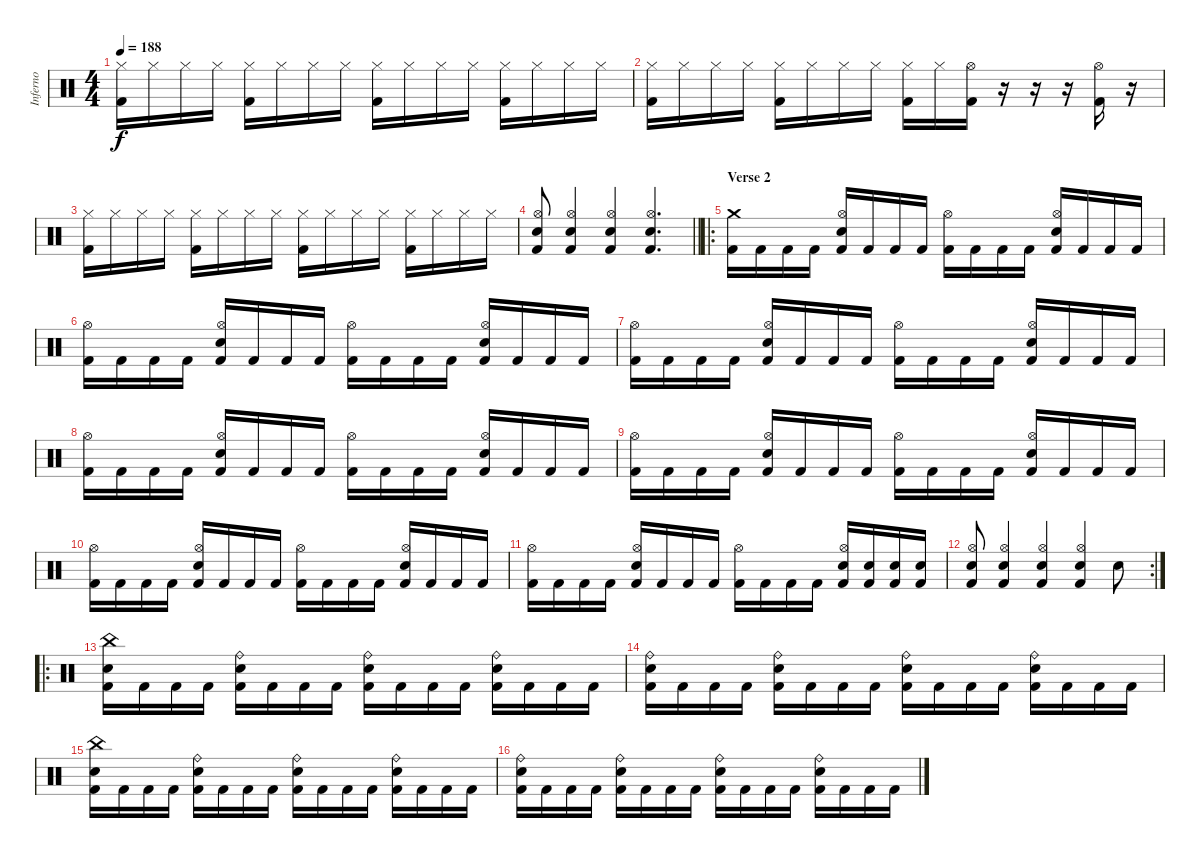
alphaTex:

\track ("Inferno" "Inferno") {instrument percussion}
\staff {score}
\articulation defaults
\ts (4 4)
\tempo 188
\clef neutral
\ks c
("Hi-Hat (closed)" "Kick (hit) 2").16{dy f} "Hi-Hat (closed)".16 "Hi-Hat (closed)".16 "Hi-Hat (closed)".16 ("Hi-Hat (closed)" "Kick (hit) 2").16 "Hi-Hat (closed)".16 "Hi-Hat (closed)".16 "Hi-Hat (closed)".16 ("Hi-Hat (closed)" "Kick (hit) 2").16 "Hi-Hat (closed)".16 "Hi-Hat (closed)".16 "Hi-Hat (closed)".16 ("Hi-Hat (closed)" "Kick (hit) 2").16 "Hi-Hat (closed)".16 "Hi-Hat (closed)".16 "Hi-Hat (closed)".16 |
("Hi-Hat (closed)" "Kick (hit) 2").16 "Hi-Hat (closed)".16 "Hi-Hat (closed)".16 "Hi-Hat (closed)".16 ("Hi-Hat (closed)" "Kick (hit) 2").16 "Hi-Hat (closed)".16 "Hi-Hat (closed)".16 "Hi-Hat (closed)".16 ("Hi-Hat (closed)" "Kick (hit) 2").16 "Hi-Hat (closed)".16 ("Hi-Hat (open)" "Kick (hit) 2").16 r.16 r.16 r.16 ("Hi-Hat (open)" "Kick (hit) 2").16 r.16 |
("Hi-Hat (closed)" "Kick (hit) 2").16 "Hi-Hat (closed)".16 "Hi-Hat (closed)".16 "Hi-Hat (closed)".16 ("Hi-Hat (closed)" "Kick (hit) 2").16 "Hi-Hat (closed)".16 "Hi-Hat (closed)".16 "Hi-Hat (closed)".16 ("Hi-Hat (closed)" "Kick (hit) 2").16 "Hi-Hat (closed)".16 "Hi-Hat (closed)".16 "Hi-Hat (closed)".16 ("Hi-Hat (closed)" "Kick (hit) 2").16 "Hi-Hat (closed)".16 "Hi-Hat (closed)".16 "Hi-Hat (closed)".16 |
\barLineRight lightlight
("Hi-Hat (open)" "Snare (hit) 2" "Kick (hit) 2").8 ("Hi-Hat (open)" "Snare (hit) 2" "Kick (hit) 2").4 ("Hi-Hat (open)" "Snare (hit) 2" "Kick (hit) 2").4 ("Hi-Hat (open)" "Snare (hit) 2" "Kick (hit) 2").4{d} |
\ro
\section ("" "Verse 2")
("Crash medium (hit)" "Kick (hit) 2").16 "Kick (hit) 2".16 "Kick (hit) 2".16 "Kick (hit) 2".16 ("Hi-Hat (open)" "Snare (hit) 2" "Kick (hit) 2").16 "Kick (hit) 2".16 "Kick (hit) 2".16 "Kick (hit) 2".16 ("Hi-Hat (open)" "Kick (hit) 2").16 "Kick (hit) 2".16 "Kick (hit) 2".16 "Kick (hit) 2".16 ("Hi-Hat (open)" "Snare (hit) 2" "Kick (hit) 2").16 "Kick (hit) 2".16 "Kick (hit) 2".16 "Kick (hit) 2".16 |
("Hi-Hat (open)" "Kick (hit) 2").16 "Kick (hit) 2".16 "Kick (hit) 2".16 "Kick (hit) 2".16 ("Hi-Hat (open)" "Snare (hit) 2" "Kick (hit) 2").16 "Kick (hit) 2".16 "Kick (hit) 2".16 "Kick (hit) 2".16 ("Hi-Hat (open)" "Kick (hit) 2").16 "Kick (hit) 2".16 "Kick (hit) 2".16 "Kick (hit) 2".16 ("Hi-Hat (open)" "Snare (hit) 2" "Kick (hit) 2").16 "Kick (hit) 2".16 "Kick (hit) 2".16 "Kick (hit) 2".16 |
("Hi-Hat (open)" "Kick (hit) 2").16 "Kick (hit) 2".16 "Kick (hit) 2".16 "Kick (hit) 2".16 ("Hi-Hat (open)" "Snare (hit) 2" "Kick (hit) 2").16 "Kick (hit) 2".16 "Kick (hit) 2".16 "Kick (hit) 2".16 ("Hi-Hat (open)" "Kick (hit) 2").16 "Kick (hit) 2".16 "Kick (hit) 2".16 "Kick (hit) 2".16 ("Hi-Hat (open)" "Snare (hit) 2" "Kick (hit) 2").16 "Kick (hit) 2".16 "Kick (hit) 2".16 "Kick (hit) 2".16 |
("Hi-Hat (open)" "Kick (hit) 2").16 "Kick (hit) 2".16 "Kick (hit) 2".16 "Kick (hit) 2".16 ("Hi-Hat (open)" "Snare (hit) 2" "Kick (hit) 2").16 "Kick (hit) 2".16 "Kick (hit) 2".16 "Kick (hit) 2".16 ("Hi-Hat (open)" "Kick (hit) 2").16 "Kick (hit) 2".16 "Kick (hit) 2".16 "Kick (hit) 2".16 ("Hi-Hat (open)" "Snare (hit) 2" "Kick (hit) 2").16 "Kick (hit) 2".16 "Kick (hit) 2".16 "Kick (hit) 2".16 |
("Hi-Hat (open)" "Kick (hit) 2").16 "Kick (hit) 2".16 "Kick (hit) 2".16 "Kick (hit) 2".16 ("Hi-Hat (open)" "Snare (hit) 2" "Kick (hit) 2").16 "Kick (hit) 2".16 "Kick (hit) 2".16 "Kick (hit) 2".16 ("Hi-Hat (open)" "Kick (hit) 2").16 "Kick (hit) 2".16 "Kick (hit) 2".16 "Kick (hit) 2".16 ("Hi-Hat (open)" "Snare (hit) 2" "Kick (hit) 2").16 "Kick (hit) 2".16 "Kick (hit) 2".16 "Kick (hit) 2".16 |
("Hi-Hat (open)" "Kick (hit) 2").16 "Kick (hit) 2".16 "Kick (hit) 2".16 "Kick (hit) 2".16 ("Hi-Hat (open)" "Snare (hit) 2" "Kick (hit) 2").16 "Kick (hit) 2".16 "Kick (hit) 2".16 "Kick (hit) 2".16 ("Hi-Hat (open)" "Kick (hit) 2").16 "Kick (hit) 2".16 "Kick (hit) 2".16 "Kick (hit) 2".16 ("Hi-Hat (open)" "Snare (hit) 2" "Kick (hit) 2").16 "Kick (hit) 2".16 "Kick (hit) 2".16 "Kick (hit) 2".16 |
("Hi-Hat (open)" "Kick (hit) 2").16 "Kick (hit) 2".16 "Kick (hit) 2".16 "Kick (hit) 2".16 ("Hi-Hat (open)" "Snare (hit) 2" "Kick (hit) 2").16 "Kick (hit) 2".16 "Kick (hit) 2".16 "Kick (hit) 2".16 ("Hi-Hat (open)" "Kick (hit) 2").16 "Kick (hit) 2".16 "Kick (hit) 2".16 "Kick (hit) 2".16 ("Hi-Hat (open)" "Snare (hit) 2" "Kick (hit) 2").16 ("Snare (hit) 2" "Kick (hit) 2").16 ("Snare (hit) 2" "Kick (hit) 2").16 ("Snare (hit) 2" "Kick (hit) 2").16 |
\rc 2
("Hi-Hat (open)" "Snare (hit) 2" "Kick (hit) 2").8 ("Hi-Hat (open)" "Snare (hit) 2" "Kick (hit) 2").4 ("Hi-Hat (open)" "Snare (hit) 2" "Kick (hit) 2").4 ("Hi-Hat (open)" "Snare (hit) 2" "Kick (hit) 2").4 "Snare (hit) 2".8 |
\ro
("China (hit)" "Snare (hit) 2" "Kick (hit) 2").16 "Kick (hit) 2".16 "Kick (hit) 2".16 "Kick (hit) 2".16 ("Ride (bell)" "Snare (hit) 2" "Kick (hit) 2").16 "Kick (hit) 2".16 "Kick (hit) 2".16 "Kick (hit) 2".16 ("Ride (bell)" "Snare (hit) 2" "Kick (hit) 2").16 "Kick (hit) 2".16 "Kick (hit) 2".16 "Kick (hit) 2".16 ("Ride (bell)" "Snare (hit) 2" "Kick (hit) 2").16 "Kick (hit) 2".16 "Kick (hit) 2".16 "Kick (hit) 2".16 |
("Ride (bell)" "Snare (hit) 2" "Kick (hit) 2").16 "Kick (hit) 2".16 "Kick (hit) 2".16 "Kick (hit) 2".16 ("Ride (bell)" "Snare (hit) 2" "Kick (hit) 2").16 "Kick (hit) 2".16 "Kick (hit) 2".16 "Kick (hit) 2".16 ("Ride (bell)" "Snare (hit) 2" "Kick (hit) 2").16 "Kick (hit) 2".16 "Kick (hit) 2".16 "Kick (hit) 2".16 ("Ride (bell)" "Snare (hit) 2" "Kick (hit) 2").16 "Kick (hit) 2".16 "Kick (hit) 2".16 "Kick (hit) 2".16 |
("China (hit)" "Snare (hit) 2" "Kick (hit) 2").16 "Kick (hit) 2".16 "Kick (hit) 2".16 "Kick (hit) 2".16 ("Ride (bell)" "Snare (hit) 2" "Kick (hit) 2").16 "Kick (hit) 2".16 "Kick (hit) 2".16 "Kick (hit) 2".16 ("Ride (bell)" "Snare (hit) 2" "Kick (hit) 2").16 "Kick (hit) 2".16 "Kick (hit) 2".16 "Kick (hit) 2".16 ("Ride (bell)" "Snare (hit) 2" "Kick (hit) 2").16 "Kick (hit) 2".16 "Kick (hit) 2".16 "Kick (hit) 2".16 |
("Ride (bell)" "Snare (hit) 2" "Kick (hit) 2").16 "Kick (hit) 2".16 "Kick (hit) 2".16 "Kick (hit) 2".16 ("Ride (bell)" "Snare (hit) 2" "Kick (hit) 2").16 "Kick (hit) 2".16 "Kick (hit) 2".16 "Kick (hit) 2".16 ("Ride (bell)" "Snare (hit) 2" "Kick (hit) 2").16 "Kick (hit) 2".16 "Kick (hit) 2".16 "Kick (hit) 2".16 ("Ride (bell)" "Snare (hit) 2" "Kick (hit) 2").16 "Kick (hit) 2".16 "Kick (hit) 2".16 "Kick (hit) 2".16
